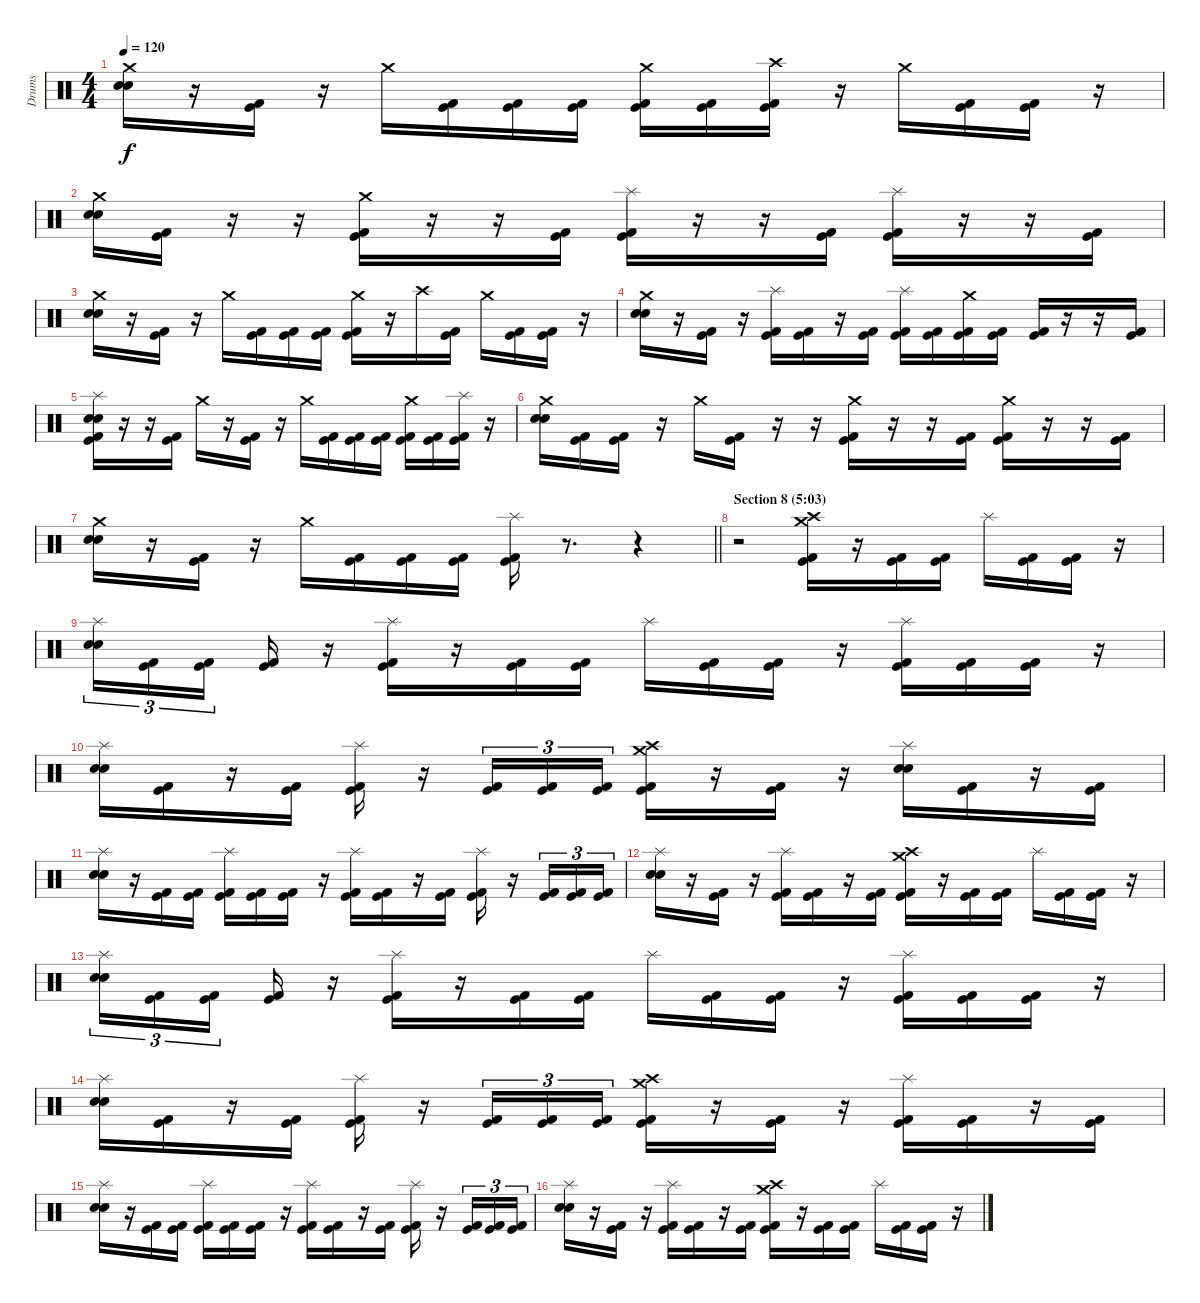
\track ("Drums" "Drums") {instrument percussion}
\staff {score}
\articulation defaults
\ts (4 4)
\tempo 120
\clef neutral
\ks c
("Crash medium (hit)" "Electric Snare (hit)" "Electric Snare (hit)").16{dy f} r.16 ("Kick (hit) 2" "Kick (hit)").16 r.16 "Crash medium (hit)".16 ("Kick (hit) 2" "Kick (hit)").16 ("Kick (hit) 2" "Kick (hit)").16 ("Kick (hit) 2" "Kick (hit)").16 ("Crash medium (hit)" "Kick (hit) 2" "Kick (hit)").16 ("Kick (hit) 2" "Kick (hit)").16 ("Crash high (hit)" "Kick (hit) 2" "Kick (hit)").16 r.16 "Crash medium (hit)".16 ("Kick (hit) 2" "Kick (hit)").16 ("Kick (hit) 2" "Kick (hit)").16 r.16 |
("Crash medium (hit)" "Electric Snare (hit)" "Electric Snare (hit)").16 ("Kick (hit) 2" "Kick (hit)").16 r.16 r.16 ("Crash medium (hit)" "Kick (hit) 2" "Kick (hit)").16 r.16 r.16 ("Kick (hit) 2" "Kick (hit)").16 ("Splash (hit)" "Kick (hit) 2" "Kick (hit)").16 r.16 r.16 ("Kick (hit) 2" "Kick (hit)").16 ("Splash (hit)" "Kick (hit) 2" "Kick (hit)").16 r.16 r.16 ("Kick (hit) 2" "Kick (hit)").16 |
("Crash medium (hit)" "Electric Snare (hit)" "Electric Snare (hit)").16 r.16 ("Kick (hit) 2" "Kick (hit)").16 r.16 "Crash medium (hit)".16 ("Kick (hit) 2" "Kick (hit)").16 ("Kick (hit) 2" "Kick (hit)").16 ("Kick (hit) 2" "Kick (hit)").16 ("Crash medium (hit)" "Kick (hit) 2" "Kick (hit)").16 r.16 "Crash high (hit)".16 ("Kick (hit) 2" "Kick (hit)").16 "Crash medium (hit)".16 ("Kick (hit) 2" "Kick (hit)").16 ("Kick (hit) 2" "Kick (hit)").16 r.16 |
("Crash medium (hit)" "Electric Snare (hit)" "Electric Snare (hit)").16 r.16 ("Kick (hit) 2" "Kick (hit)").16 r.16 ("Splash (hit)" "Kick (hit) 2" "Kick (hit)").16 ("Kick (hit) 2" "Kick (hit)").16 r.16 ("Kick (hit) 2" "Kick (hit)").16 ("Splash (hit)" "Kick (hit) 2" "Kick (hit)").16 ("Kick (hit) 2" "Kick (hit)").16 ("Crash medium (hit)" "Kick (hit) 2" "Kick (hit)").16 ("Kick (hit) 2" "Kick (hit)").16 ("Kick (hit) 2" "Kick (hit)").16 r.16 r.16 ("Kick (hit) 2" "Kick (hit)").16 |
("Splash (hit)" "Electric Snare (hit)" "Electric Snare (hit)" "Kick (hit) 2" "Kick (hit)").16 r.16 r.16 ("Kick (hit) 2" "Kick (hit)").16 "Crash medium (hit)".16 r.16 ("Kick (hit) 2" "Kick (hit)").16 r.16 "Crash medium (hit)".16 ("Kick (hit) 2" "Kick (hit)").16 ("Kick (hit) 2" "Kick (hit)").16 ("Kick (hit) 2" "Kick (hit)").16 ("Crash medium (hit)" "Kick (hit) 2" "Kick (hit)").16 ("Kick (hit) 2" "Kick (hit)").16 ("Splash (hit)" "Kick (hit) 2" "Kick (hit)").16 r.16 |
("Crash medium (hit)" "Electric Snare (hit)" "Electric Snare (hit)").16 ("Kick (hit) 2" "Kick (hit)").16 ("Kick (hit) 2" "Kick (hit)").16 r.16 "Crash medium (hit)".16 ("Kick (hit) 2" "Kick (hit)").16 r.16 r.16 ("Crash medium (hit)" "Kick (hit) 2" "Kick (hit)").16 r.16 r.16 ("Kick (hit) 2" "Kick (hit)").16 ("Crash medium (hit)" "Kick (hit) 2" "Kick (hit)").16 r.16 r.16 ("Kick (hit) 2" "Kick (hit)").16 |
\barLineRight lightlight
("Crash medium (hit)" "Electric Snare (hit)" "Electric Snare (hit)").16 r.16 ("Kick (hit) 2" "Kick (hit)").16 r.16 "Crash medium (hit)".16 ("Kick (hit) 2" "Kick (hit)").16 ("Kick (hit) 2" "Kick (hit)").16 ("Kick (hit) 2" "Kick (hit)").16 ("Splash (hit)" "Kick (hit) 2" "Kick (hit)").16 r.8{d} r.4 |
\section ("" "Section 8 (5:03)")
r.2 ("Crash medium (hit)" "Crash high (hit)" "Kick (hit) 2" "Kick (hit)").16 r.16 ("Kick (hit) 2" "Kick (hit)").16 ("Kick (hit) 2" "Kick (hit)").16 "Splash (hit)".16 ("Kick (hit) 2" "Kick (hit)").16 ("Kick (hit) 2" "Kick (hit)").16 r.16 |
("Splash (hit)" "Electric Snare (hit)" "Electric Snare (hit)").16{tu (3 2)} ("Kick (hit) 2" "Kick (hit)").16{tu (3 2)} ("Kick (hit) 2" "Kick (hit)").16{tu (3 2) beam splitsecondary} ("Kick (hit) 2" "Kick (hit)").16 r.16 ("Splash (hit)" "Kick (hit) 2" "Kick (hit)").16 r.16 ("Kick (hit) 2" "Kick (hit)").16 ("Kick (hit) 2" "Kick (hit)").16 "Splash (hit)".16 ("Kick (hit) 2" "Kick (hit)").16 ("Kick (hit) 2" "Kick (hit)").16 r.16 ("Splash (hit)" "Kick (hit) 2" "Kick (hit)").16 ("Kick (hit) 2" "Kick (hit)").16 ("Kick (hit) 2" "Kick (hit)").16 r.16 |
("Splash (hit)" "Electric Snare (hit)" "Electric Snare (hit)").16 ("Kick (hit) 2" "Kick (hit)").16 r.16 ("Kick (hit) 2" "Kick (hit)").16 ("Splash (hit)" "Kick (hit) 2" "Kick (hit)").16 r.16 ("Kick (hit) 2" "Kick (hit)").16{tu (3 2)} ("Kick (hit) 2" "Kick (hit)").16{tu (3 2)} ("Kick (hit) 2" "Kick (hit)").16{tu (3 2)} ("Crash medium (hit)" "Crash high (hit)" "Kick (hit) 2" "Kick (hit)").16 r.16 ("Kick (hit) 2" "Kick (hit)").16 r.16 ("Splash (hit)" "Electric Snare (hit)" "Electric Snare (hit)").16 ("Kick (hit) 2" "Kick (hit)").16 r.16 ("Kick (hit) 2" "Kick (hit)").16 |
("Splash (hit)" "Electric Snare (hit)" "Electric Snare (hit)").16 r.16 ("Kick (hit) 2" "Kick (hit)").16 ("Kick (hit) 2" "Kick (hit)").16 ("Splash (hit)" "Kick (hit) 2" "Kick (hit)").16 ("Kick (hit) 2" "Kick (hit)").16 ("Kick (hit) 2" "Kick (hit)").16 r.16 ("Splash (hit)" "Kick (hit) 2" "Kick (hit)").16 ("Kick (hit) 2" "Kick (hit)").16 r.16 ("Kick (hit) 2" "Kick (hit)").16 ("Splash (hit)" "Kick (hit) 2" "Kick (hit)").16 r.16 ("Kick (hit) 2" "Kick (hit)").16{tu (3 2)} ("Kick (hit) 2" "Kick (hit)").16{tu (3 2)} ("Kick (hit) 2" "Kick (hit)").16{tu (3 2)} |
("Splash (hit)" "Electric Snare (hit)" "Electric Snare (hit)").16 r.16 ("Kick (hit) 2" "Kick (hit)").16 r.16 ("Splash (hit)" "Kick (hit) 2" "Kick (hit)").16 ("Kick (hit) 2" "Kick (hit)").16 r.16 ("Kick (hit) 2" "Kick (hit)").16 ("Crash high (hit)" "Crash medium (hit)" "Kick (hit) 2" "Kick (hit)").16 r.16 ("Kick (hit) 2" "Kick (hit)").16 ("Kick (hit) 2" "Kick (hit)").16 "Splash (hit)".16 ("Kick (hit) 2" "Kick (hit)").16 ("Kick (hit) 2" "Kick (hit)").16 r.16 |
("Splash (hit)" "Electric Snare (hit)" "Electric Snare (hit)").16{tu (3 2)} ("Kick (hit) 2" "Kick (hit)").16{tu (3 2)} ("Kick (hit) 2" "Kick (hit)").16{tu (3 2) beam splitsecondary} ("Kick (hit) 2" "Kick (hit)").16 r.16 ("Splash (hit)" "Kick (hit) 2" "Kick (hit)").16 r.16 ("Kick (hit) 2" "Kick (hit)").16 ("Kick (hit) 2" "Kick (hit)").16 "Splash (hit)".16 ("Kick (hit) 2" "Kick (hit)").16 ("Kick (hit) 2" "Kick (hit)").16 r.16 ("Splash (hit)" "Kick (hit) 2" "Kick (hit)").16 ("Kick (hit) 2" "Kick (hit)").16 ("Kick (hit) 2" "Kick (hit)").16 r.16 |
("Splash (hit)" "Electric Snare (hit)" "Electric Snare (hit)").16 ("Kick (hit) 2" "Kick (hit)").16 r.16 ("Kick (hit) 2" "Kick (hit)").16 ("Splash (hit)" "Kick (hit) 2" "Kick (hit)").16 r.16 ("Kick (hit) 2" "Kick (hit)").16{tu (3 2)} ("Kick (hit) 2" "Kick (hit)").16{tu (3 2)} ("Kick (hit) 2" "Kick (hit)").16{tu (3 2)} ("Crash high (hit)" "Crash medium (hit)" "Kick (hit) 2" "Kick (hit)").16 r.16 ("Kick (hit) 2" "Kick (hit)").16 r.16 ("Splash (hit)" "Kick (hit) 2" "Kick (hit)").16 ("Kick (hit) 2" "Kick (hit)").16 r.16 ("Kick (hit) 2" "Kick (hit)").16 |
("Splash (hit)" "Electric Snare (hit)" "Electric Snare (hit)").16 r.16 ("Kick (hit) 2" "Kick (hit)").16 ("Kick (hit) 2" "Kick (hit)").16 ("Splash (hit)" "Kick (hit) 2" "Kick (hit)").16 ("Kick (hit) 2" "Kick (hit)").16 ("Kick (hit) 2" "Kick (hit)").16 r.16 ("Splash (hit)" "Kick (hit) 2" "Kick (hit)").16 ("Kick (hit) 2" "Kick (hit)").16 r.16 ("Kick (hit) 2" "Kick (hit)").16 ("Splash (hit)" "Kick (hit) 2" "Kick (hit)").16 r.16 ("Kick (hit) 2" "Kick (hit)").16{tu (3 2)} ("Kick (hit) 2" "Kick (hit)").16{tu (3 2)} ("Kick (hit) 2" "Kick (hit)").16{tu (3 2)} |
("Splash (hit)" "Electric Snare (hit)" "Electric Snare (hit)").16 r.16 ("Kick (hit) 2" "Kick (hit)").16 r.16 ("Splash (hit)" "Kick (hit) 2" "Kick (hit)").16 ("Kick (hit) 2" "Kick (hit)").16 r.16 ("Kick (hit) 2" "Kick (hit)").16 ("Crash high (hit)" "Crash medium (hit)" "Kick (hit) 2" "Kick (hit)").16 r.16 ("Kick (hit) 2" "Kick (hit)").16 ("Kick (hit) 2" "Kick (hit)").16 "Splash (hit)".16 ("Kick (hit) 2" "Kick (hit)").16 ("Kick (hit) 2" "Kick (hit)").16 r.16
